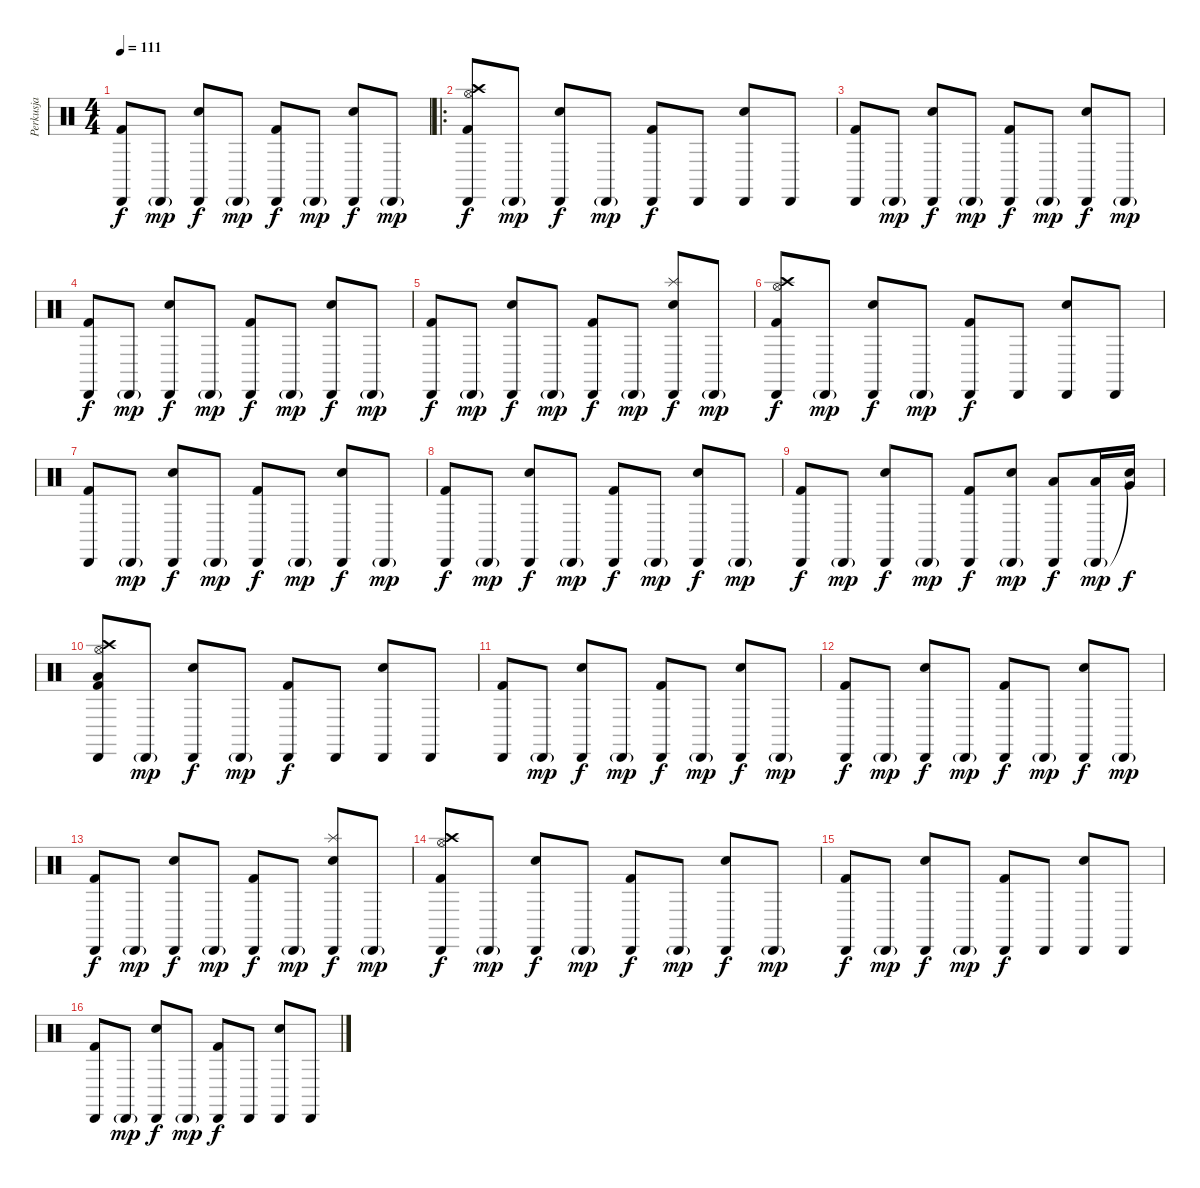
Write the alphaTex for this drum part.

\track ("Perkusja" "Perkusja") {instrument percussion}
\staff {score}
\articulation defaults
\ts (4 4)
\tempo 111
\clef neutral
\ks c
("Cabasa (hit)" "Kick (hit) 2").8{dy f} "Cabasa (hit)"{g}.8{dy mp} ("Cabasa (hit)" "Snare (hit) 2").8{dy f} "Cabasa (hit)"{g}.8{dy mp} ("Cabasa (hit)" "Kick (hit) 2").8{dy f} "Cabasa (hit)"{g}.8{dy mp} ("Cabasa (hit)" "Snare (hit) 2").8{dy f} "Cabasa (hit)"{g}.8{dy mp} |
\ro
("Cabasa (hit)" "Kick (hit) 2" "Hi-Hat (open)" "Crash high (hit)").8{dy f} "Cabasa (hit)"{g}.8{dy mp} ("Cabasa (hit)" "Snare (hit) 2").8{dy f} "Cabasa (hit)"{g}.8{dy mp} ("Cabasa (hit)" "Kick (hit) 2").8{dy f} "Cabasa (hit)".8 ("Cabasa (hit)" "Snare (hit) 2").8 "Cabasa (hit)".8 |
("Cabasa (hit)" "Kick (hit) 2").8 "Cabasa (hit)"{g}.8{dy mp} ("Cabasa (hit)" "Snare (hit) 2").8{dy f} "Cabasa (hit)"{g}.8{dy mp} ("Cabasa (hit)" "Kick (hit) 2").8{dy f} "Cabasa (hit)"{g}.8{dy mp} ("Cabasa (hit)" "Snare (hit) 2").8{dy f} "Cabasa (hit)"{g}.8{dy mp} |
("Cabasa (hit)" "Kick (hit) 2").8{dy f} "Cabasa (hit)"{g}.8{dy mp} ("Cabasa (hit)" "Snare (hit) 2").8{dy f} "Cabasa (hit)"{g}.8{dy mp} ("Cabasa (hit)" "Kick (hit) 2").8{dy f} "Cabasa (hit)"{g}.8{dy mp} ("Cabasa (hit)" "Snare (hit) 2").8{dy f} "Cabasa (hit)"{g}.8{dy mp} |
("Cabasa (hit)" "Kick (hit) 2").8{dy f} "Cabasa (hit)"{g}.8{dy mp} ("Cabasa (hit)" "Snare (hit) 2").8{dy f} "Cabasa (hit)"{g}.8{dy mp} ("Cabasa (hit)" "Kick (hit) 2").8{dy f} "Cabasa (hit)"{g}.8{dy mp} ("Cabasa (hit)" "Snare (hit) 2" "Splash (hit)").8{dy f} "Cabasa (hit)"{g}.8{dy mp} |
("Cabasa (hit)" "Kick (hit) 2" "Hi-Hat (open)" "Crash high (hit)").8{dy f} "Cabasa (hit)"{g}.8{dy mp} ("Cabasa (hit)" "Snare (hit) 2").8{dy f} "Cabasa (hit)"{g}.8{dy mp} ("Cabasa (hit)" "Kick (hit) 2").8{dy f} "Cabasa (hit)".8 ("Cabasa (hit)" "Snare (hit) 2").8 "Cabasa (hit)".8 |
("Cabasa (hit)" "Kick (hit) 2").8 "Cabasa (hit)"{g}.8{dy mp} ("Cabasa (hit)" "Snare (hit) 2").8{dy f} "Cabasa (hit)"{g}.8{dy mp} ("Cabasa (hit)" "Kick (hit) 2").8{dy f} "Cabasa (hit)"{g}.8{dy mp} ("Cabasa (hit)" "Snare (hit) 2").8{dy f} "Cabasa (hit)"{g}.8{dy mp} |
("Cabasa (hit)" "Kick (hit) 2").8{dy f} "Cabasa (hit)"{g}.8{dy mp} ("Cabasa (hit)" "Snare (hit) 2").8{dy f} "Cabasa (hit)"{g}.8{dy mp} ("Cabasa (hit)" "Kick (hit) 2").8{dy f} "Cabasa (hit)"{g}.8{dy mp} ("Cabasa (hit)" "Snare (hit) 2").8{dy f} "Cabasa (hit)"{g}.8{dy mp} |
("Cabasa (hit)" "Kick (hit) 2").8{dy f} "Cabasa (hit)"{g}.8{dy mp} ("Cabasa (hit)" "Snare (hit) 2").8{dy f} "Cabasa (hit)"{g}.8{dy mp} ("Cabasa (hit)" "Kick (hit) 2").8{dy f} ("Cabasa (hit)"{g} "Snare (hit) 2").8{dy mp} ("Cabasa (hit)" "Low Tom (hit)").8{dy f} ("Cabasa (hit)"{g} "Low Tom (hit)").16{dy mp} ("Snare (hit)"{t} "Very Low Tom (hit)").16{dy f} |
("Cabasa (hit)" "Kick (hit) 2" "Hi-Hat (open)" "Crash high (hit)" "Low Floor Tom (hit)").8 "Cabasa (hit)"{g}.8{dy mp} ("Cabasa (hit)" "Snare (hit) 2").8{dy f} "Cabasa (hit)"{g}.8{dy mp} ("Cabasa (hit)" "Kick (hit) 2").8{dy f} "Cabasa (hit)".8 ("Cabasa (hit)" "Snare (hit) 2").8 "Cabasa (hit)".8 |
("Cabasa (hit)" "Kick (hit) 2").8 "Cabasa (hit)"{g}.8{dy mp} ("Cabasa (hit)" "Snare (hit) 2").8{dy f} "Cabasa (hit)"{g}.8{dy mp} ("Cabasa (hit)" "Kick (hit) 2").8{dy f} "Cabasa (hit)"{g}.8{dy mp} ("Cabasa (hit)" "Snare (hit) 2").8{dy f} "Cabasa (hit)"{g}.8{dy mp} |
("Cabasa (hit)" "Kick (hit) 2").8{dy f} "Cabasa (hit)"{g}.8{dy mp} ("Cabasa (hit)" "Snare (hit) 2").8{dy f} "Cabasa (hit)"{g}.8{dy mp} ("Cabasa (hit)" "Kick (hit) 2").8{dy f} "Cabasa (hit)"{g}.8{dy mp} ("Cabasa (hit)" "Snare (hit) 2").8{dy f} "Cabasa (hit)"{g}.8{dy mp} |
("Cabasa (hit)" "Kick (hit) 2").8{dy f} "Cabasa (hit)"{g}.8{dy mp} ("Cabasa (hit)" "Snare (hit) 2").8{dy f} "Cabasa (hit)"{g}.8{dy mp} ("Cabasa (hit)" "Kick (hit) 2").8{dy f} "Cabasa (hit)"{g}.8{dy mp} ("Cabasa (hit)" "Snare (hit) 2" "Splash (hit)").8{dy f} "Cabasa (hit)"{g}.8{dy mp} |
("Cabasa (hit)" "Kick (hit) 2" "Hi-Hat (open)" "Crash high (hit)").8{dy f} "Cabasa (hit)"{g}.8{dy mp} ("Cabasa (hit)" "Snare (hit) 2").8{dy f} "Cabasa (hit)"{g}.8{dy mp} ("Cabasa (hit)" "Kick (hit) 2").8{dy f} "Cabasa (hit)"{g}.8{dy mp} ("Cabasa (hit)" "Snare (hit) 2").8{dy f} "Cabasa (hit)"{g}.8{dy mp} |
("Cabasa (hit)" "Kick (hit) 2").8{dy f} "Cabasa (hit)"{g}.8{dy mp} ("Cabasa (hit)" "Snare (hit) 2").8{dy f} "Cabasa (hit)"{g}.8{dy mp} ("Cabasa (hit)" "Kick (hit) 2").8{dy f} "Cabasa (hit)".8 ("Cabasa (hit)" "Snare (hit) 2").8 "Cabasa (hit)".8 |
("Cabasa (hit)" "Kick (hit) 2").8 "Cabasa (hit)"{g}.8{dy mp} ("Cabasa (hit)" "Snare (hit) 2").8{dy f} "Cabasa (hit)"{g}.8{dy mp} ("Cabasa (hit)" "Kick (hit) 2").8{dy f} "Cabasa (hit)".8 ("Cabasa (hit)" "Snare (hit) 2").8 "Cabasa (hit)".8
